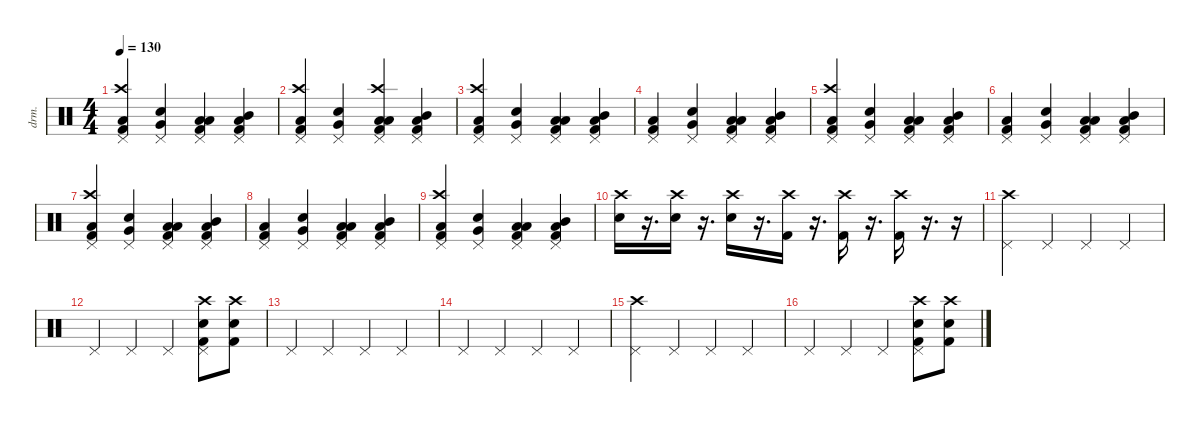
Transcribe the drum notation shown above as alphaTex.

\defaultSystemsLayout 4
\hideDynamics
\bracketExtendMode nobrackets
\otherSystemsTrackNameOrientation horizontal
\track ("Percussion" "drm.") {instrument percussion}
\staff {score}
\articulation defaults
\ts (4 4)
\tempo 130
\clef neutral
\ks c
("Pedal Hi-Hat (hit)" "Crash high (hit)" "Kick (hit) 2" "Low Floor Tom (hit)").4{dy f} ("Pedal Hi-Hat (hit)" "Very Low Tom (hit)" "Snare (hit) 2").4 ("Pedal Hi-Hat (hit)" "Low Floor Tom (hit)" "Kick (hit) 2" "Low Tom (hit)").4 ("Pedal Hi-Hat (hit)" "Low Tom (hit)" "Kick (hit) 2" "Mid Tom (hit)").4 |
("Pedal Hi-Hat (hit)" "Crash high (hit)" "Kick (hit) 2" "Low Floor Tom (hit)").4 ("Pedal Hi-Hat (hit)" "Very Low Tom (hit)" "Snare (hit) 2").4 ("Pedal Hi-Hat (hit)" "Crash high (hit)" "Low Floor Tom (hit)" "Kick (hit) 2" "Low Tom (hit)").4 ("Pedal Hi-Hat (hit)" "Low Tom (hit)" "Kick (hit) 2" "Mid Tom (hit)").4 |
("Pedal Hi-Hat (hit)" "Crash high (hit)" "Kick (hit) 2" "Low Floor Tom (hit)").4 ("Pedal Hi-Hat (hit)" "Very Low Tom (hit)" "Snare (hit) 2").4 ("Pedal Hi-Hat (hit)" "Low Floor Tom (hit)" "Kick (hit) 2" "Low Tom (hit)").4 ("Pedal Hi-Hat (hit)" "Low Tom (hit)" "Kick (hit) 2" "Mid Tom (hit)").4 |
("Pedal Hi-Hat (hit)" "Kick (hit) 2" "Low Floor Tom (hit)").4 ("Pedal Hi-Hat (hit)" "Very Low Tom (hit)" "Snare (hit) 2").4 ("Pedal Hi-Hat (hit)" "Low Floor Tom (hit)" "Kick (hit) 2" "Low Tom (hit)").4 ("Pedal Hi-Hat (hit)" "Low Tom (hit)" "Kick (hit) 2" "Mid Tom (hit)").4 |
("Pedal Hi-Hat (hit)" "Crash high (hit)" "Kick (hit) 2" "Low Floor Tom (hit)").4 ("Pedal Hi-Hat (hit)" "Very Low Tom (hit)" "Snare (hit) 2").4 ("Pedal Hi-Hat (hit)" "Low Floor Tom (hit)" "Kick (hit) 2" "Low Tom (hit)").4 ("Pedal Hi-Hat (hit)" "Low Tom (hit)" "Kick (hit) 2" "Mid Tom (hit)").4 |
("Pedal Hi-Hat (hit)" "Kick (hit) 2" "Low Floor Tom (hit)").4 ("Pedal Hi-Hat (hit)" "Very Low Tom (hit)" "Snare (hit) 2").4 ("Pedal Hi-Hat (hit)" "Low Floor Tom (hit)" "Kick (hit) 2" "Low Tom (hit)").4 ("Pedal Hi-Hat (hit)" "Low Tom (hit)" "Kick (hit) 2" "Mid Tom (hit)").4 |
("Pedal Hi-Hat (hit)" "Crash high (hit)" "Kick (hit) 2" "Low Floor Tom (hit)").4 ("Pedal Hi-Hat (hit)" "Very Low Tom (hit)" "Snare (hit) 2").4 ("Pedal Hi-Hat (hit)" "Low Floor Tom (hit)" "Kick (hit) 2" "Low Tom (hit)").4 ("Pedal Hi-Hat (hit)" "Low Tom (hit)" "Kick (hit) 2" "Mid Tom (hit)").4 |
("Pedal Hi-Hat (hit)" "Kick (hit) 2" "Low Floor Tom (hit)").4 ("Pedal Hi-Hat (hit)" "Very Low Tom (hit)" "Snare (hit) 2").4 ("Pedal Hi-Hat (hit)" "Low Floor Tom (hit)" "Kick (hit) 2" "Low Tom (hit)").4 ("Pedal Hi-Hat (hit)" "Low Tom (hit)" "Kick (hit) 2" "Mid Tom (hit)").4 |
("Pedal Hi-Hat (hit)" "Crash high (hit)" "Kick (hit) 2" "Low Floor Tom (hit)").4 ("Pedal Hi-Hat (hit)" "Very Low Tom (hit)" "Snare (hit) 2").4 ("Pedal Hi-Hat (hit)" "Low Floor Tom (hit)" "Kick (hit) 2" "Low Tom (hit)").4 ("Pedal Hi-Hat (hit)" "Low Tom (hit)" "Kick (hit) 2" "Mid Tom (hit)").4 |
("Snare (hit) 2" "Crash high (hit)").16 r.16{d} ("Snare (hit) 2" "Crash high (hit)").16 r.16{d} ("Snare (hit) 2" "Crash high (hit)").16 r.16{d} ("Kick (hit) 2" "Crash high (hit)").16 r.16{d} ("Kick (hit) 2" "Crash high (hit)").16 r.16{d} ("Kick (hit) 2" "Crash high (hit)").16 r.16{d} r.16 |
("Pedal Hi-Hat (hit)" "Crash high (hit)").4 "Pedal Hi-Hat (hit)".4 "Pedal Hi-Hat (hit)".4 "Pedal Hi-Hat (hit)".4 |
"Pedal Hi-Hat (hit)".4 "Pedal Hi-Hat (hit)".4 "Pedal Hi-Hat (hit)".4 ("Pedal Hi-Hat (hit)" "Crash high (hit)" "Kick (hit) 2" "Snare (hit) 2").8 ("Crash high (hit)" "Kick (hit) 2" "Snare (hit) 2").8 |
"Pedal Hi-Hat (hit)".4 "Pedal Hi-Hat (hit)".4 "Pedal Hi-Hat (hit)".4 "Pedal Hi-Hat (hit)".4 |
"Pedal Hi-Hat (hit)".4 "Pedal Hi-Hat (hit)".4 "Pedal Hi-Hat (hit)".4 "Pedal Hi-Hat (hit)".4 |
("Pedal Hi-Hat (hit)" "Crash high (hit)").4 "Pedal Hi-Hat (hit)".4 "Pedal Hi-Hat (hit)".4 "Pedal Hi-Hat (hit)".4 |
"Pedal Hi-Hat (hit)".4 "Pedal Hi-Hat (hit)".4 "Pedal Hi-Hat (hit)".4 ("Pedal Hi-Hat (hit)" "Crash high (hit)" "Kick (hit) 2" "Snare (hit) 2").8 ("Crash high (hit)" "Kick (hit) 2" "Snare (hit) 2").8
